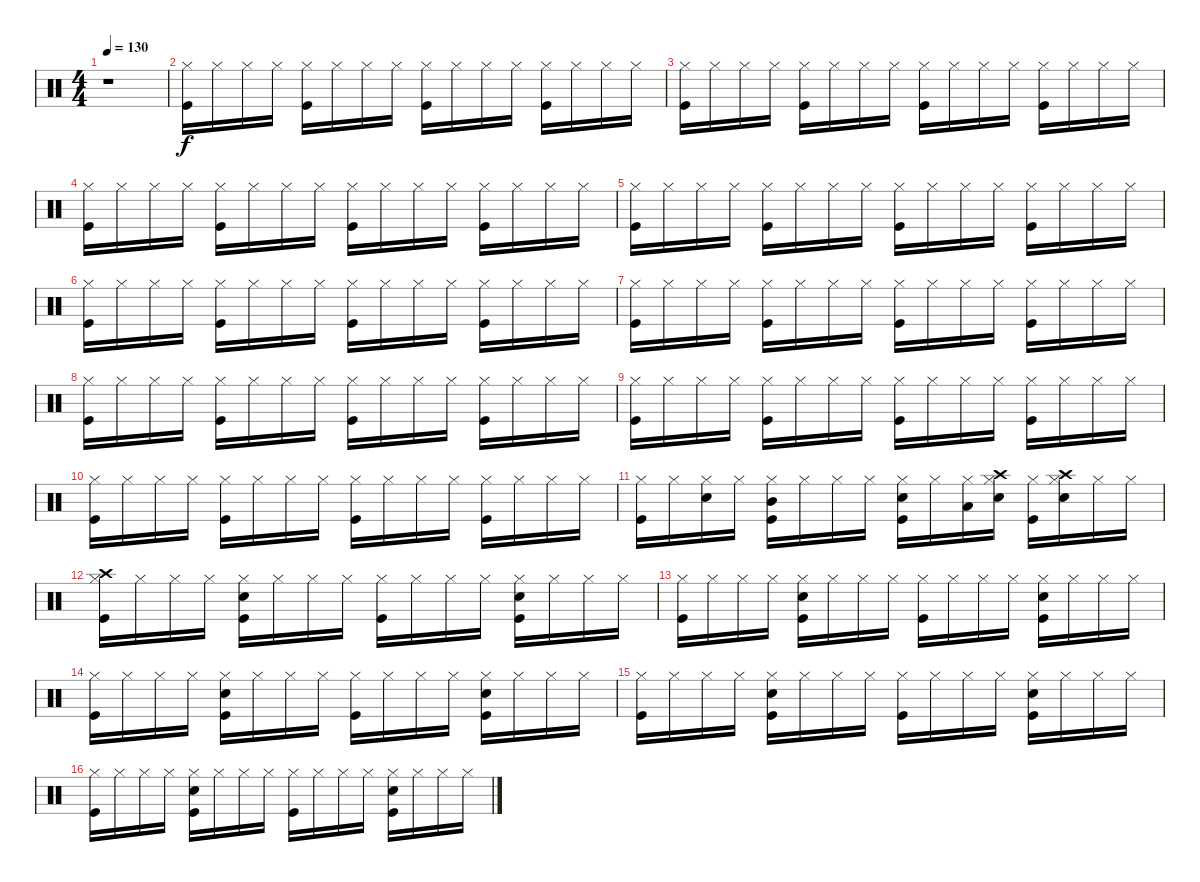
\track "" {instrument percussion}
\staff {score}
\articulation defaults
\ts (4 4)
\tempo 130
\clef neutral
\ks c
r.1{dy f} |
("Hi-Hat (closed)" "Kick (hit)").16 "Hi-Hat (closed)".16 "Hi-Hat (closed)".16 "Hi-Hat (closed)".16 ("Hi-Hat (closed)" "Kick (hit)").16 "Hi-Hat (closed)".16 "Hi-Hat (closed)".16 "Hi-Hat (closed)".16 ("Hi-Hat (closed)" "Kick (hit)").16 "Hi-Hat (closed)".16 "Hi-Hat (closed)".16 "Hi-Hat (closed)".16 ("Hi-Hat (closed)" "Kick (hit)").16 "Hi-Hat (closed)".16 "Hi-Hat (closed)".16 "Hi-Hat (closed)".16 |
("Hi-Hat (closed)" "Kick (hit)").16 "Hi-Hat (closed)".16 "Hi-Hat (closed)".16 "Hi-Hat (closed)".16 ("Hi-Hat (closed)" "Kick (hit)").16 "Hi-Hat (closed)".16 "Hi-Hat (closed)".16 "Hi-Hat (closed)".16 ("Hi-Hat (closed)" "Kick (hit)").16 "Hi-Hat (closed)".16 "Hi-Hat (closed)".16 "Hi-Hat (closed)".16 ("Hi-Hat (closed)" "Kick (hit)").16 "Hi-Hat (closed)".16 "Hi-Hat (closed)".16 "Hi-Hat (closed)".16 |
("Hi-Hat (closed)" "Kick (hit)").16 "Hi-Hat (closed)".16 "Hi-Hat (closed)".16 "Hi-Hat (closed)".16 ("Hi-Hat (closed)" "Kick (hit)").16 "Hi-Hat (closed)".16 "Hi-Hat (closed)".16 "Hi-Hat (closed)".16 ("Hi-Hat (closed)" "Kick (hit)").16 "Hi-Hat (closed)".16 "Hi-Hat (closed)".16 "Hi-Hat (closed)".16 ("Hi-Hat (closed)" "Kick (hit)").16 "Hi-Hat (closed)".16 "Hi-Hat (closed)".16 "Hi-Hat (closed)".16 |
("Hi-Hat (closed)" "Kick (hit)").16 "Hi-Hat (closed)".16 "Hi-Hat (closed)".16 "Hi-Hat (closed)".16 ("Hi-Hat (closed)" "Kick (hit)").16 "Hi-Hat (closed)".16 "Hi-Hat (closed)".16 "Hi-Hat (closed)".16 ("Hi-Hat (closed)" "Kick (hit)").16 "Hi-Hat (closed)".16 "Hi-Hat (closed)".16 "Hi-Hat (closed)".16 ("Hi-Hat (closed)" "Kick (hit)").16 "Hi-Hat (closed)".16 "Hi-Hat (closed)".16 "Hi-Hat (closed)".16 |
("Hi-Hat (closed)" "Kick (hit)").16 "Hi-Hat (closed)".16 "Hi-Hat (closed)".16 "Hi-Hat (closed)".16 ("Hi-Hat (closed)" "Kick (hit)").16 "Hi-Hat (closed)".16 "Hi-Hat (closed)".16 "Hi-Hat (closed)".16 ("Hi-Hat (closed)" "Kick (hit)").16 "Hi-Hat (closed)".16 "Hi-Hat (closed)".16 "Hi-Hat (closed)".16 ("Hi-Hat (closed)" "Kick (hit)").16 "Hi-Hat (closed)".16 "Hi-Hat (closed)".16 "Hi-Hat (closed)".16 |
("Hi-Hat (closed)" "Kick (hit)").16 "Hi-Hat (closed)".16 "Hi-Hat (closed)".16 "Hi-Hat (closed)".16 ("Hi-Hat (closed)" "Kick (hit)").16 "Hi-Hat (closed)".16 "Hi-Hat (closed)".16 "Hi-Hat (closed)".16 ("Hi-Hat (closed)" "Kick (hit)").16 "Hi-Hat (closed)".16 "Hi-Hat (closed)".16 "Hi-Hat (closed)".16 ("Hi-Hat (closed)" "Kick (hit)").16 "Hi-Hat (closed)".16 "Hi-Hat (closed)".16 "Hi-Hat (closed)".16 |
("Hi-Hat (closed)" "Kick (hit)").16 "Hi-Hat (closed)".16 "Hi-Hat (closed)".16 "Hi-Hat (closed)".16 ("Hi-Hat (closed)" "Kick (hit)").16 "Hi-Hat (closed)".16 "Hi-Hat (closed)".16 "Hi-Hat (closed)".16 ("Hi-Hat (closed)" "Kick (hit)").16 "Hi-Hat (closed)".16 "Hi-Hat (closed)".16 "Hi-Hat (closed)".16 ("Hi-Hat (closed)" "Kick (hit)").16 "Hi-Hat (closed)".16 "Hi-Hat (closed)".16 "Hi-Hat (closed)".16 |
("Hi-Hat (closed)" "Kick (hit)").16 "Hi-Hat (closed)".16 "Hi-Hat (closed)".16 "Hi-Hat (closed)".16 ("Hi-Hat (closed)" "Kick (hit)").16 "Hi-Hat (closed)".16 "Hi-Hat (closed)".16 "Hi-Hat (closed)".16 ("Hi-Hat (closed)" "Kick (hit)").16 "Hi-Hat (closed)".16 "Hi-Hat (closed)".16 "Hi-Hat (closed)".16 ("Hi-Hat (closed)" "Kick (hit)").16 "Hi-Hat (closed)".16 "Hi-Hat (closed)".16 "Hi-Hat (closed)".16 |
("Hi-Hat (closed)" "Kick (hit)").16 "Hi-Hat (closed)".16 "Hi-Hat (closed)".16 "Hi-Hat (closed)".16 ("Hi-Hat (closed)" "Kick (hit)").16 "Hi-Hat (closed)".16 "Hi-Hat (closed)".16 "Hi-Hat (closed)".16 ("Hi-Hat (closed)" "Kick (hit)").16 "Hi-Hat (closed)".16 "Hi-Hat (closed)".16 "Hi-Hat (closed)".16 ("Hi-Hat (closed)" "Kick (hit)").16 "Hi-Hat (closed)".16 "Hi-Hat (closed)".16 "Hi-Hat (closed)".16 |
("Hi-Hat (closed)" "Kick (hit)").16 "Hi-Hat (closed)".16 ("Snare (hit) 2" "Hi-Hat (closed)").16 "Hi-Hat (closed)".16 ("Mid Tom (hit)" "Hi-Hat (closed)" "Kick (hit)").16 "Hi-Hat (closed)".16 "Hi-Hat (closed)".16 "Hi-Hat (closed)".16 ("Snare (hit) 2" "Hi-Hat (closed)" "Kick (hit)").16 "Hi-Hat (closed)".16 ("Low Tom (hit)" "Hi-Hat (closed)").16 ("Crash high (hit)" "Snare (hit) 2" "Hi-Hat (closed)").16 ("Hi-Hat (closed)" "Kick (hit)").16 ("Crash high (hit)" "Snare (hit) 2" "Hi-Hat (closed)").16 "Hi-Hat (closed)".16 "Hi-Hat (closed)".16 |
("Crash high (hit)" "Hi-Hat (closed)" "Kick (hit)").16 "Hi-Hat (closed)".16 "Hi-Hat (closed)".16 "Hi-Hat (closed)".16 ("Snare (hit) 2" "Hi-Hat (closed)" "Kick (hit)").16 "Hi-Hat (closed)".16 "Hi-Hat (closed)".16 "Hi-Hat (closed)".16 ("Hi-Hat (closed)" "Kick (hit)").16 "Hi-Hat (closed)".16 "Hi-Hat (closed)".16 "Hi-Hat (closed)".16 ("Snare (hit) 2" "Hi-Hat (closed)" "Kick (hit)").16 "Hi-Hat (closed)".16 "Hi-Hat (closed)".16 "Hi-Hat (closed)".16 |
("Hi-Hat (closed)" "Kick (hit)").16 "Hi-Hat (closed)".16 "Hi-Hat (closed)".16 "Hi-Hat (closed)".16 ("Snare (hit) 2" "Hi-Hat (closed)" "Kick (hit)").16 "Hi-Hat (closed)".16 "Hi-Hat (closed)".16 "Hi-Hat (closed)".16 ("Hi-Hat (closed)" "Kick (hit)").16 "Hi-Hat (closed)".16 "Hi-Hat (closed)".16 "Hi-Hat (closed)".16 ("Snare (hit) 2" "Hi-Hat (closed)" "Kick (hit)").16 "Hi-Hat (closed)".16 "Hi-Hat (closed)".16 "Hi-Hat (closed)".16 |
("Hi-Hat (closed)" "Kick (hit)").16 "Hi-Hat (closed)".16 "Hi-Hat (closed)".16 "Hi-Hat (closed)".16 ("Snare (hit) 2" "Hi-Hat (closed)" "Kick (hit)").16 "Hi-Hat (closed)".16 "Hi-Hat (closed)".16 "Hi-Hat (closed)".16 ("Hi-Hat (closed)" "Kick (hit)").16 "Hi-Hat (closed)".16 "Hi-Hat (closed)".16 "Hi-Hat (closed)".16 ("Snare (hit) 2" "Hi-Hat (closed)" "Kick (hit)").16 "Hi-Hat (closed)".16 "Hi-Hat (closed)".16 "Hi-Hat (closed)".16 |
("Hi-Hat (closed)" "Kick (hit)").16 "Hi-Hat (closed)".16 "Hi-Hat (closed)".16 "Hi-Hat (closed)".16 ("Snare (hit) 2" "Hi-Hat (closed)" "Kick (hit)").16 "Hi-Hat (closed)".16 "Hi-Hat (closed)".16 "Hi-Hat (closed)".16 ("Hi-Hat (closed)" "Kick (hit)").16 "Hi-Hat (closed)".16 "Hi-Hat (closed)".16 "Hi-Hat (closed)".16 ("Snare (hit) 2" "Hi-Hat (closed)" "Kick (hit)").16 "Hi-Hat (closed)".16 "Hi-Hat (closed)".16 "Hi-Hat (closed)".16 |
("Hi-Hat (closed)" "Kick (hit)").16 "Hi-Hat (closed)".16 "Hi-Hat (closed)".16 "Hi-Hat (closed)".16 ("Snare (hit) 2" "Hi-Hat (closed)" "Kick (hit)").16 "Hi-Hat (closed)".16 "Hi-Hat (closed)".16 "Hi-Hat (closed)".16 ("Hi-Hat (closed)" "Kick (hit)").16 "Hi-Hat (closed)".16 "Hi-Hat (closed)".16 "Hi-Hat (closed)".16 ("Snare (hit) 2" "Hi-Hat (closed)" "Kick (hit)").16 "Hi-Hat (closed)".16 "Hi-Hat (closed)".16 "Hi-Hat (closed)".16
